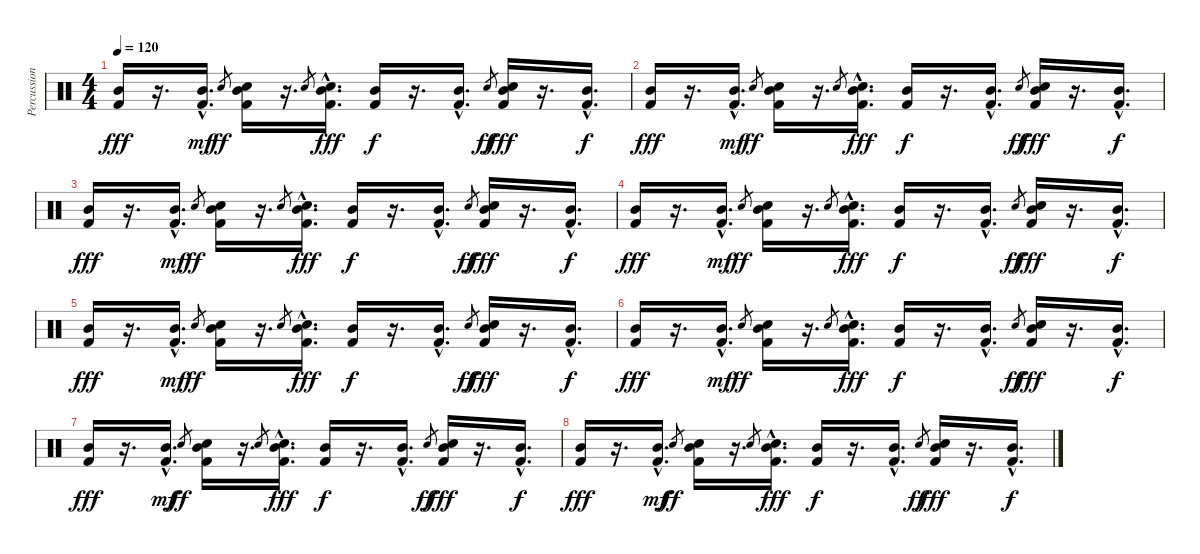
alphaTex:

\track ("Percussion" "Percussion") {instrument percussion}
\staff {score}
\articulation defaults
\ts (4 4)
\tempo 120
\clef neutral
\ks c
("Mid Tom (hit)" "Kick (hit) 2").16{dy fff volume 8} r.16{d} ("Mid Tom (hit)"{hac} "Kick (hit) 2"{hac}).16{d dy mf} "Hand Clap (hit)".8{gr dy ff} ("Mid Tom (hit)" "Snare (hit) 2" "Kick (hit) 2").16 r.16{d} "Hand Clap (hit)".8{gr} ("Mid Tom (hit)"{hac} "Snare (hit) 2"{hac} "Kick (hit) 2"{hac}).16{d dy fff} ("Mid Tom (hit)" "Kick (hit) 2").16{dy f} r.16{d} ("Mid Tom (hit)"{hac} "Kick (hit) 2"{hac}).16{d} "Hand Clap (hit)".8{gr dy ff} ("Mid Tom (hit)" "Snare (hit) 2" "Kick (hit) 2").16{dy fff} r.16{d} ("Mid Tom (hit)" "Kick (hit) 2"{hac}).16{d dy f} |
("Mid Tom (hit)" "Kick (hit) 2").16{dy fff volume 6} r.16{d} ("Mid Tom (hit)"{hac} "Kick (hit) 2"{hac}).16{d dy mf} "Hand Clap (hit)".8{gr dy ff} ("Mid Tom (hit)" "Snare (hit) 2" "Kick (hit) 2").16 r.16{d} "Hand Clap (hit)".8{gr} ("Mid Tom (hit)"{hac} "Snare (hit) 2"{hac} "Kick (hit) 2"{hac}).16{d dy fff} ("Mid Tom (hit)" "Kick (hit) 2").16{dy f} r.16{d} ("Mid Tom (hit)"{hac} "Kick (hit) 2"{hac}).16{d} "Hand Clap (hit)".8{gr dy ff} ("Mid Tom (hit)" "Snare (hit) 2" "Kick (hit) 2").16{dy fff} r.16{d} ("Mid Tom (hit)" "Kick (hit) 2"{hac}).16{d dy f} |
("Mid Tom (hit)" "Kick (hit) 2").16{dy fff volume 5} r.16{d} ("Mid Tom (hit)"{hac} "Kick (hit) 2"{hac}).16{d dy mf} "Hand Clap (hit)".8{gr dy ff} ("Mid Tom (hit)" "Snare (hit) 2" "Kick (hit) 2").16 r.16{d} "Hand Clap (hit)".8{gr} ("Mid Tom (hit)"{hac} "Snare (hit) 2"{hac} "Kick (hit) 2"{hac}).16{d dy fff} ("Mid Tom (hit)" "Kick (hit) 2").16{dy f} r.16{d} ("Mid Tom (hit)"{hac} "Kick (hit) 2"{hac}).16{d} "Hand Clap (hit)".8{gr dy ff} ("Mid Tom (hit)" "Snare (hit) 2" "Kick (hit) 2").16{dy fff} r.16{d} ("Mid Tom (hit)" "Kick (hit) 2"{hac}).16{d dy f} |
("Mid Tom (hit)" "Kick (hit) 2").16{dy fff volume 4} r.16{d} ("Mid Tom (hit)"{hac} "Kick (hit) 2"{hac}).16{d dy mf} "Hand Clap (hit)".8{gr dy ff} ("Mid Tom (hit)" "Snare (hit) 2" "Kick (hit) 2").16 r.16{d} "Hand Clap (hit)".8{gr} ("Mid Tom (hit)"{hac} "Snare (hit) 2"{hac} "Kick (hit) 2"{hac}).16{d dy fff} ("Mid Tom (hit)" "Kick (hit) 2").16{dy f} r.16{d} ("Mid Tom (hit)"{hac} "Kick (hit) 2"{hac}).16{d} "Hand Clap (hit)".8{gr dy ff} ("Mid Tom (hit)" "Snare (hit) 2" "Kick (hit) 2").16{dy fff} r.16{d} ("Mid Tom (hit)" "Kick (hit) 2"{hac}).16{d dy f} |
("Mid Tom (hit)" "Kick (hit) 2").16{dy fff volume 0} r.16{d} ("Mid Tom (hit)"{hac} "Kick (hit) 2"{hac}).16{d dy mf} "Hand Clap (hit)".8{gr dy ff} ("Mid Tom (hit)" "Snare (hit) 2" "Kick (hit) 2").16 r.16{d} "Hand Clap (hit)".8{gr} ("Mid Tom (hit)"{hac} "Snare (hit) 2"{hac} "Kick (hit) 2"{hac}).16{d dy fff} ("Mid Tom (hit)" "Kick (hit) 2").16{dy f} r.16{d} ("Mid Tom (hit)"{hac} "Kick (hit) 2"{hac}).16{d} "Hand Clap (hit)".8{gr dy ff} ("Mid Tom (hit)" "Snare (hit) 2" "Kick (hit) 2").16{dy fff} r.16{d} ("Mid Tom (hit)" "Kick (hit) 2"{hac}).16{d dy f} |
("Mid Tom (hit)" "Kick (hit) 2").16{dy fff} r.16{d} ("Mid Tom (hit)"{hac} "Kick (hit) 2"{hac}).16{d dy mf} "Hand Clap (hit)".8{gr dy ff} ("Mid Tom (hit)" "Snare (hit) 2" "Kick (hit) 2").16 r.16{d} "Hand Clap (hit)".8{gr} ("Mid Tom (hit)"{hac} "Snare (hit) 2"{hac} "Kick (hit) 2"{hac}).16{d dy fff} ("Mid Tom (hit)" "Kick (hit) 2").16{dy f} r.16{d} ("Mid Tom (hit)"{hac} "Kick (hit) 2"{hac}).16{d} "Hand Clap (hit)".8{gr dy ff} ("Mid Tom (hit)" "Snare (hit) 2" "Kick (hit) 2").16{dy fff} r.16{d} ("Mid Tom (hit)" "Kick (hit) 2"{hac}).16{d dy f} |
("Mid Tom (hit)" "Kick (hit) 2").16{dy fff} r.16{d} ("Mid Tom (hit)"{hac} "Kick (hit) 2"{hac}).16{d dy mf} "Hand Clap (hit)".8{gr dy ff} ("Mid Tom (hit)" "Snare (hit) 2" "Kick (hit) 2").16 r.16{d} "Hand Clap (hit)".8{gr} ("Mid Tom (hit)"{hac} "Snare (hit) 2"{hac} "Kick (hit) 2"{hac}).16{d dy fff} ("Mid Tom (hit)" "Kick (hit) 2").16{dy f} r.16{d} ("Mid Tom (hit)"{hac} "Kick (hit) 2"{hac}).16{d} "Hand Clap (hit)".8{gr dy ff} ("Mid Tom (hit)" "Snare (hit) 2" "Kick (hit) 2").16{dy fff} r.16{d} ("Mid Tom (hit)" "Kick (hit) 2"{hac}).16{d dy f} |
("Mid Tom (hit)" "Kick (hit) 2").16{dy fff} r.16{d} ("Mid Tom (hit)"{hac} "Kick (hit) 2"{hac}).16{d dy mf} "Hand Clap (hit)".8{gr dy ff} ("Mid Tom (hit)" "Snare (hit) 2" "Kick (hit) 2").16 r.16{d} "Hand Clap (hit)".8{gr} ("Mid Tom (hit)"{hac} "Snare (hit) 2"{hac} "Kick (hit) 2"{hac}).16{d dy fff} ("Mid Tom (hit)" "Kick (hit) 2").16{dy f} r.16{d} ("Mid Tom (hit)"{hac} "Kick (hit) 2"{hac}).16{d} "Hand Clap (hit)".8{gr dy ff} ("Mid Tom (hit)" "Snare (hit) 2" "Kick (hit) 2").16{dy fff} r.16{d} ("Mid Tom (hit)" "Kick (hit) 2"{hac}).16{d dy f}
